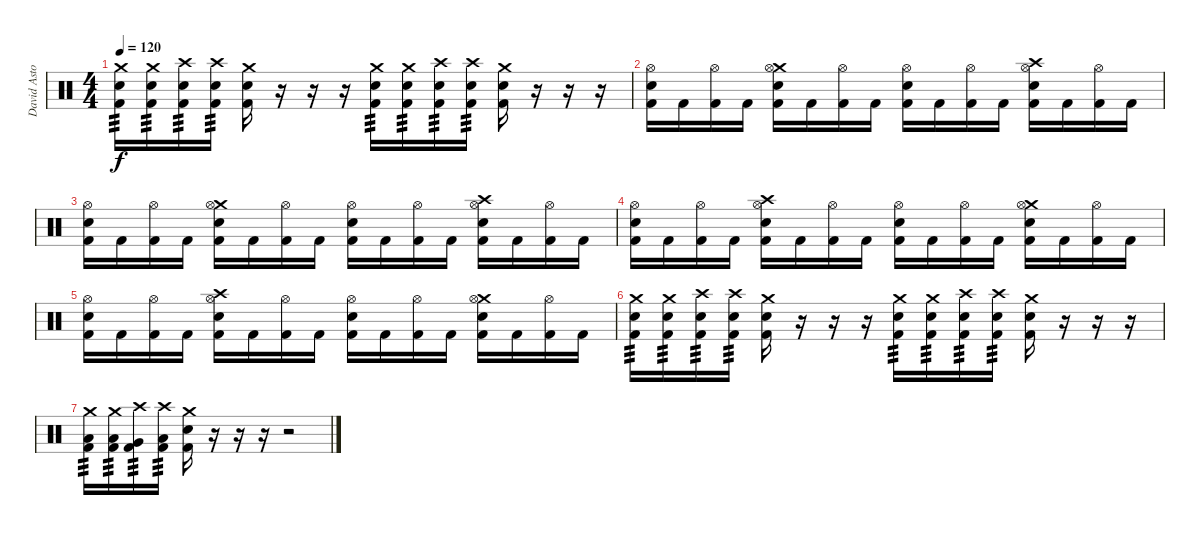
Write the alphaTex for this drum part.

\track ("David Astor" "David Asto") {instrument percussion}
\staff {score}
\articulation defaults
\ts (4 4)
\tempo 120
\clef neutral
\ks c
("Crash medium (hit)" "Electric Snare (hit)" "Kick (hit) 2").16{tp 3 dy f} ("Crash medium (hit)" "Electric Snare (hit)" "Kick (hit) 2").16{tp 3} ("Crash high (hit)" "Electric Snare (hit)" "Kick (hit) 2").16{tp 3} ("Crash high (hit)" "Electric Snare (hit)" "Kick (hit) 2").16{tp 3} ("Crash medium (hit)" "Snare (hit) 2" "Kick (hit) 2").16 r.16 r.16 r.16 ("Crash medium (hit)" "Electric Snare (hit)" "Kick (hit) 2").16{tp 3} ("Crash medium (hit)" "Electric Snare (hit)" "Kick (hit) 2").16{tp 3} ("Crash high (hit)" "Electric Snare (hit)" "Kick (hit) 2").16{tp 3} ("Crash high (hit)" "Electric Snare (hit)" "Kick (hit) 2").16{tp 3} ("Crash medium (hit)" "Snare (hit) 2" "Kick (hit) 2").16 r.16 r.16 r.16 |
("Hi-Hat (open)" "Electric Snare (hit)" "Kick (hit) 2").16 "Kick (hit) 2".16 ("Hi-Hat (open)" "Kick (hit) 2").16 "Kick (hit) 2".16 ("Crash medium (hit)" "Hi-Hat (open)" "Electric Snare (hit)" "Kick (hit) 2").16 "Kick (hit) 2".16 ("Hi-Hat (open)" "Kick (hit) 2").16 "Kick (hit) 2".16 ("Hi-Hat (open)" "Electric Snare (hit)" "Kick (hit) 2").16 "Kick (hit) 2".16 ("Hi-Hat (open)" "Kick (hit) 2").16 "Kick (hit) 2".16 ("Crash high (hit)" "Hi-Hat (open)" "Electric Snare (hit)" "Kick (hit) 2").16 "Kick (hit) 2".16 ("Hi-Hat (open)" "Kick (hit) 2").16 "Kick (hit) 2".16 |
("Hi-Hat (open)" "Electric Snare (hit)" "Kick (hit) 2").16 "Kick (hit) 2".16 ("Hi-Hat (open)" "Kick (hit) 2").16 "Kick (hit) 2".16 ("Crash medium (hit)" "Hi-Hat (open)" "Electric Snare (hit)" "Kick (hit) 2").16 "Kick (hit) 2".16 ("Hi-Hat (open)" "Kick (hit) 2").16 "Kick (hit) 2".16 ("Hi-Hat (open)" "Electric Snare (hit)" "Kick (hit) 2").16 "Kick (hit) 2".16 ("Hi-Hat (open)" "Kick (hit) 2").16 "Kick (hit) 2".16 ("Crash high (hit)" "Hi-Hat (open)" "Electric Snare (hit)" "Kick (hit) 2").16 "Kick (hit) 2".16 ("Hi-Hat (open)" "Kick (hit) 2").16 "Kick (hit) 2".16 |
("Hi-Hat (open)" "Electric Snare (hit)" "Kick (hit) 2").16 "Kick (hit) 2".16 ("Hi-Hat (open)" "Kick (hit) 2").16 "Kick (hit) 2".16 ("Crash high (hit)" "Hi-Hat (open)" "Electric Snare (hit)" "Kick (hit) 2").16 "Kick (hit) 2".16 ("Hi-Hat (open)" "Kick (hit) 2").16 "Kick (hit) 2".16 ("Hi-Hat (open)" "Electric Snare (hit)" "Kick (hit) 2").16 "Kick (hit) 2".16 ("Hi-Hat (open)" "Kick (hit) 2").16 "Kick (hit) 2".16 ("Crash medium (hit)" "Hi-Hat (open)" "Electric Snare (hit)" "Kick (hit) 2").16 "Kick (hit) 2".16 ("Hi-Hat (open)" "Kick (hit) 2").16 "Kick (hit) 2".16 |
("Hi-Hat (open)" "Electric Snare (hit)" "Kick (hit) 2").16 "Kick (hit) 2".16 ("Hi-Hat (open)" "Kick (hit) 2").16 "Kick (hit) 2".16 ("Crash high (hit)" "Hi-Hat (open)" "Electric Snare (hit)" "Kick (hit) 2").16 "Kick (hit) 2".16 ("Hi-Hat (open)" "Kick (hit) 2").16 "Kick (hit) 2".16 ("Hi-Hat (open)" "Electric Snare (hit)" "Kick (hit) 2").16 "Kick (hit) 2".16 ("Hi-Hat (open)" "Kick (hit) 2").16 "Kick (hit) 2".16 ("Crash medium (hit)" "Hi-Hat (open)" "Electric Snare (hit)" "Kick (hit) 2").16 "Kick (hit) 2".16 ("Hi-Hat (open)" "Kick (hit) 2").16 "Kick (hit) 2".16 |
("Crash medium (hit)" "Electric Snare (hit)" "Kick (hit) 2").16{tp 3} ("Crash medium (hit)" "Electric Snare (hit)" "Kick (hit) 2").16{tp 3} ("Crash high (hit)" "Electric Snare (hit)" "Kick (hit) 2").16{tp 3} ("Crash high (hit)" "Electric Snare (hit)" "Kick (hit) 2").16{tp 3} ("Crash medium (hit)" "Snare (hit) 2" "Kick (hit) 2").16 r.16 r.16 r.16 ("Crash medium (hit)" "Electric Snare (hit)" "Kick (hit) 2").16{tp 3} ("Crash medium (hit)" "Electric Snare (hit)" "Kick (hit) 2").16{tp 3} ("Crash high (hit)" "Electric Snare (hit)" "Kick (hit) 2").16{tp 3} ("Crash high (hit)" "Electric Snare (hit)" "Kick (hit) 2").16{tp 3} ("Crash medium (hit)" "Snare (hit) 2" "Kick (hit) 2").16 r.16 r.16 r.16 |
("Crash medium (hit)" "Low Floor Tom (hit)" "Kick (hit) 2").16{tp 3} ("Crash medium (hit)" "Low Floor Tom (hit)" "Kick (hit) 2").16{tp 3} ("Crash high (hit)" "Very Low Tom (hit)" "Kick (hit) 2").16{tp 3} ("Crash high (hit)" "Low Floor Tom (hit)" "Kick (hit) 2").16{tp 3} ("Crash medium (hit)" "Snare (hit) 2" "Kick (hit) 2").16 r.16 r.16 r.16 r.2
